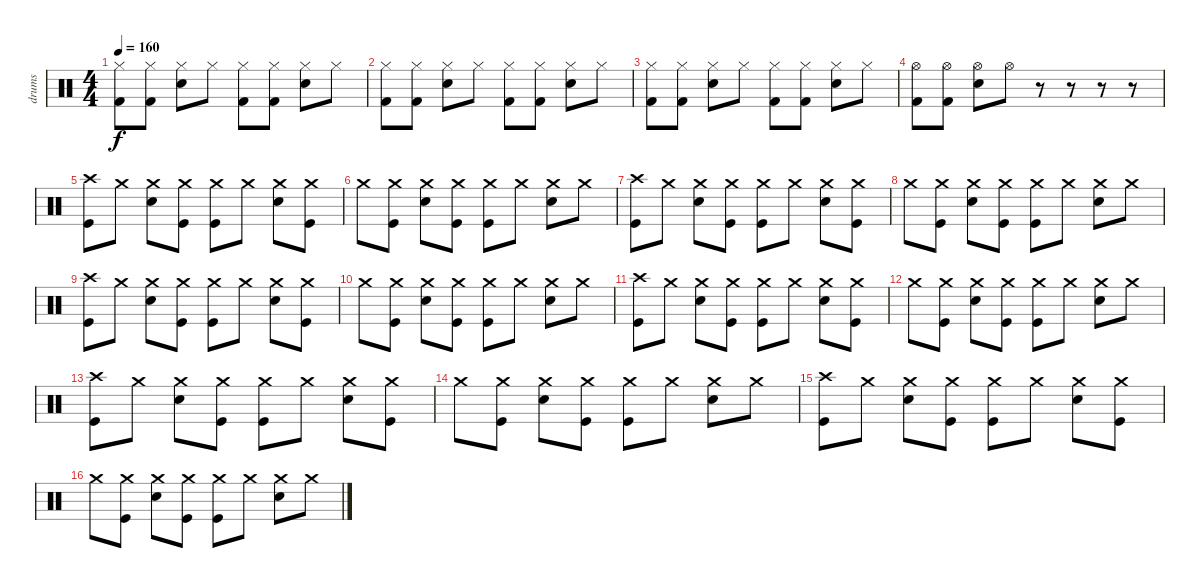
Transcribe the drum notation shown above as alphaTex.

\track ("drums" "drums") {instrument percussion}
\staff {score}
\articulation defaults
\ts (4 4)
\tempo 160
\clef neutral
\ks c
("Hi-Hat (closed)" "Kick (hit) 2").8{dy f} ("Hi-Hat (closed)" "Kick (hit) 2").8 ("Hi-Hat (closed)" "Electric Snare (hit)").8 "Hi-Hat (closed)".8 ("Hi-Hat (closed)" "Kick (hit) 2").8 ("Hi-Hat (closed)" "Kick (hit) 2").8 ("Hi-Hat (closed)" "Electric Snare (hit)").8 "Hi-Hat (closed)".8 |
("Hi-Hat (closed)" "Kick (hit) 2").8 ("Hi-Hat (closed)" "Kick (hit) 2").8 ("Hi-Hat (closed)" "Electric Snare (hit)").8 "Hi-Hat (closed)".8 ("Hi-Hat (closed)" "Kick (hit) 2").8 ("Hi-Hat (closed)" "Kick (hit) 2").8 ("Hi-Hat (closed)" "Electric Snare (hit)").8 "Hi-Hat (closed)".8 |
("Hi-Hat (closed)" "Kick (hit) 2").8 ("Hi-Hat (closed)" "Kick (hit) 2").8 ("Hi-Hat (closed)" "Electric Snare (hit)").8 "Hi-Hat (closed)".8 ("Hi-Hat (closed)" "Kick (hit) 2").8 ("Hi-Hat (closed)" "Kick (hit) 2").8 ("Hi-Hat (closed)" "Electric Snare (hit)").8 "Hi-Hat (closed)".8 |
("Hi-Hat (open)" "Kick (hit) 2").8 ("Hi-Hat (open)" "Kick (hit) 2").8 ("Hi-Hat (open)" "Electric Snare (hit)").8 "Hi-Hat (open)".8 r.8 r.8 r.8 r.8 |
("Crash high (hit)" "Kick (hit)").8 "Crash medium (hit)".8 ("Crash medium (hit)" "Snare (hit) 2").8 ("Crash medium (hit)" "Kick (hit)").8 ("Crash medium (hit)" "Kick (hit)").8 "Crash medium (hit)".8 ("Crash medium (hit)" "Snare (hit) 2").8 ("Crash medium (hit)" "Kick (hit)").8 |
"Crash medium (hit)".8 ("Crash medium (hit)" "Kick (hit)").8 ("Crash medium (hit)" "Snare (hit) 2").8 ("Crash medium (hit)" "Kick (hit)").8 ("Crash medium (hit)" "Kick (hit)").8 "Crash medium (hit)".8 ("Crash medium (hit)" "Snare (hit) 2").8 "Crash medium (hit)".8 |
("Crash high (hit)" "Kick (hit)").8 "Crash medium (hit)".8 ("Crash medium (hit)" "Snare (hit) 2").8 ("Crash medium (hit)" "Kick (hit)").8 ("Crash medium (hit)" "Kick (hit)").8 "Crash medium (hit)".8 ("Crash medium (hit)" "Snare (hit) 2").8 ("Crash medium (hit)" "Kick (hit)").8 |
"Crash medium (hit)".8 ("Crash medium (hit)" "Kick (hit)").8 ("Crash medium (hit)" "Snare (hit) 2").8 ("Crash medium (hit)" "Kick (hit)").8 ("Crash medium (hit)" "Kick (hit)").8 "Crash medium (hit)".8 ("Crash medium (hit)" "Snare (hit) 2").8 "Crash medium (hit)".8 |
("Crash high (hit)" "Kick (hit)").8 "Crash medium (hit)".8 ("Crash medium (hit)" "Snare (hit) 2").8 ("Crash medium (hit)" "Kick (hit)").8 ("Crash medium (hit)" "Kick (hit)").8 "Crash medium (hit)".8 ("Crash medium (hit)" "Snare (hit) 2").8 ("Crash medium (hit)" "Kick (hit)").8 |
"Crash medium (hit)".8 ("Crash medium (hit)" "Kick (hit)").8 ("Crash medium (hit)" "Snare (hit) 2").8 ("Crash medium (hit)" "Kick (hit)").8 ("Crash medium (hit)" "Kick (hit)").8 "Crash medium (hit)".8 ("Crash medium (hit)" "Snare (hit) 2").8 "Crash medium (hit)".8 |
("Crash high (hit)" "Kick (hit)").8 "Crash medium (hit)".8 ("Crash medium (hit)" "Snare (hit) 2").8 ("Crash medium (hit)" "Kick (hit)").8 ("Crash medium (hit)" "Kick (hit)").8 "Crash medium (hit)".8 ("Crash medium (hit)" "Snare (hit) 2").8 ("Crash medium (hit)" "Kick (hit)").8 |
"Crash medium (hit)".8 ("Crash medium (hit)" "Kick (hit)").8 ("Crash medium (hit)" "Snare (hit) 2").8 ("Crash medium (hit)" "Kick (hit)").8 ("Crash medium (hit)" "Kick (hit)").8 "Crash medium (hit)".8 ("Crash medium (hit)" "Snare (hit) 2").8 "Crash medium (hit)".8 |
("Crash high (hit)" "Kick (hit)").8 "Crash medium (hit)".8 ("Crash medium (hit)" "Snare (hit) 2").8 ("Crash medium (hit)" "Kick (hit)").8 ("Crash medium (hit)" "Kick (hit)").8 "Crash medium (hit)".8 ("Crash medium (hit)" "Snare (hit) 2").8 ("Crash medium (hit)" "Kick (hit)").8 |
"Crash medium (hit)".8 ("Crash medium (hit)" "Kick (hit)").8 ("Crash medium (hit)" "Snare (hit) 2").8 ("Crash medium (hit)" "Kick (hit)").8 ("Crash medium (hit)" "Kick (hit)").8 "Crash medium (hit)".8 ("Crash medium (hit)" "Snare (hit) 2").8 "Crash medium (hit)".8 |
("Crash high (hit)" "Kick (hit)").8 "Crash medium (hit)".8 ("Crash medium (hit)" "Snare (hit) 2").8 ("Crash medium (hit)" "Kick (hit)").8 ("Crash medium (hit)" "Kick (hit)").8 "Crash medium (hit)".8 ("Crash medium (hit)" "Snare (hit) 2").8 ("Crash medium (hit)" "Kick (hit)").8 |
"Crash medium (hit)".8 ("Crash medium (hit)" "Kick (hit)").8 ("Crash medium (hit)" "Snare (hit) 2").8 ("Crash medium (hit)" "Kick (hit)").8 ("Crash medium (hit)" "Kick (hit)").8 "Crash medium (hit)".8 ("Crash medium (hit)" "Snare (hit) 2").8 "Crash medium (hit)".8
